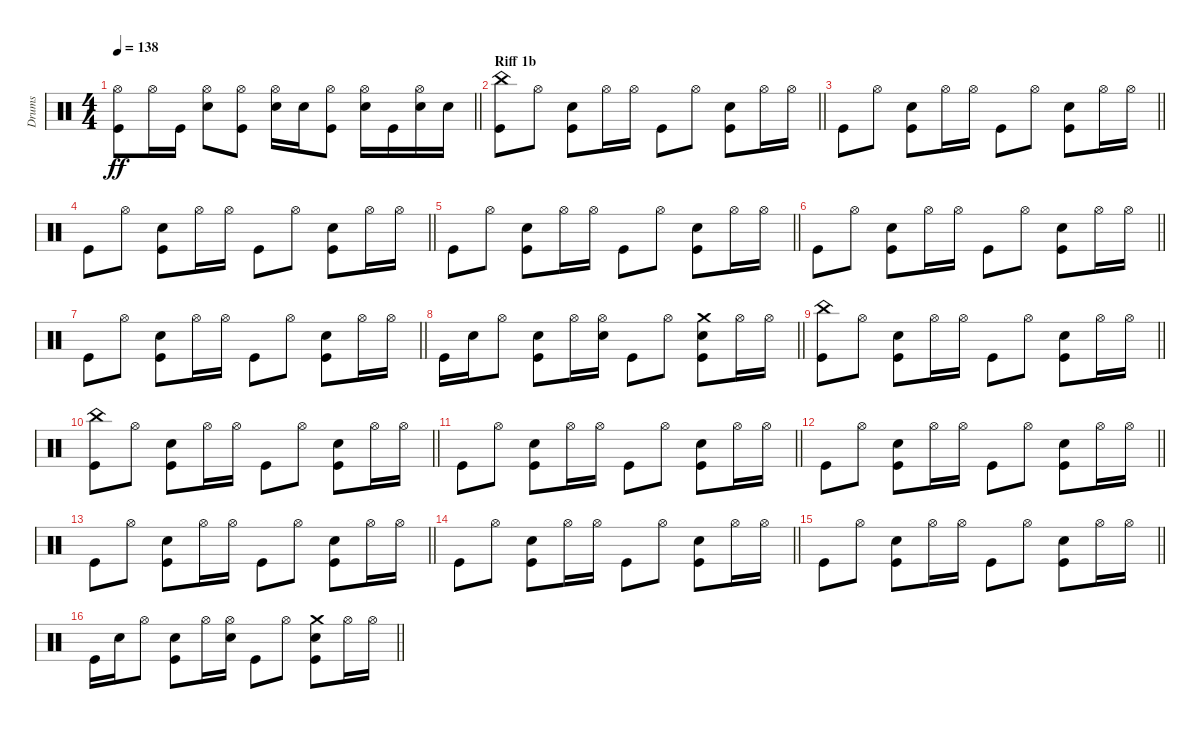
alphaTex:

\track ("Drums" "Drums") {instrument percussion}
\staff {score}
\articulation defaults
\ts (4 4)
\tempo 138
\clef neutral
\barLineRight lightlight
\ks c
("Kick (hit)" "Hi-Hat (open)").8{dy ff} "Hi-Hat (open)".16 "Kick (hit)".16 ("Snare (hit) 2" "Hi-Hat (open)").8 ("Kick (hit)" "Hi-Hat (open)").8 ("Snare (hit) 2" "Hi-Hat (open)").16 "Snare (hit) 2".16 ("Kick (hit)" "Hi-Hat (open)").8 ("Snare (hit) 2" "Hi-Hat (open)").16 "Kick (hit)".16 ("Snare (hit) 2" "Hi-Hat (open)").16 "Snare (hit) 2".16 |
\section ("" "Riff 1b")
\barLineRight lightlight
("Kick (hit)" "China (hit)").8 "Hi-Hat (open)".8 ("Kick (hit)" "Snare (hit) 2").8 "Hi-Hat (open)".16 "Hi-Hat (open)".16 "Kick (hit)".8 "Hi-Hat (open)".8 ("Kick (hit)" "Snare (hit) 2").8 "Hi-Hat (open)".16 "Hi-Hat (open)".16 |
\barLineRight lightlight "Kick (hit)".8 "Hi-Hat (open)".8
("Kick (hit)" "Snare (hit) 2").8 "Hi-Hat (open)".16 "Hi-Hat (open)".16 "Kick (hit)".8 "Hi-Hat (open)".8 ("Kick (hit)" "Snare (hit) 2").8 "Hi-Hat (open)".16 "Hi-Hat (open)".16 |
\barLineRight lightlight "Kick (hit)".8 "Hi-Hat (open)".8
("Kick (hit)" "Snare (hit) 2").8 "Hi-Hat (open)".16 "Hi-Hat (open)".16 "Kick (hit)".8 "Hi-Hat (open)".8 ("Kick (hit)" "Snare (hit) 2").8 "Hi-Hat (open)".16 "Hi-Hat (open)".16 |
\barLineRight lightlight "Kick (hit)".8 "Hi-Hat (open)".8
("Kick (hit)" "Snare (hit) 2").8 "Hi-Hat (open)".16 "Hi-Hat (open)".16 "Kick (hit)".8 "Hi-Hat (open)".8 ("Kick (hit)" "Snare (hit) 2").8 "Hi-Hat (open)".16 "Hi-Hat (open)".16 |
\barLineRight lightlight "Kick (hit)".8 "Hi-Hat (open)".8
("Kick (hit)" "Snare (hit) 2").8 "Hi-Hat (open)".16 "Hi-Hat (open)".16 "Kick (hit)".8 "Hi-Hat (open)".8 ("Kick (hit)" "Snare (hit) 2").8 "Hi-Hat (open)".16 "Hi-Hat (open)".16 |
\barLineRight lightlight "Kick (hit)".8 "Hi-Hat (open)".8
("Kick (hit)" "Snare (hit) 2").8 "Hi-Hat (open)".16 "Hi-Hat (open)".16 "Kick (hit)".8 "Hi-Hat (open)".8 ("Kick (hit)" "Snare (hit) 2").8 "Hi-Hat (open)".16 "Hi-Hat (open)".16 |
\barLineRight lightlight "Kick (hit)".16 "Snare (hit) 2".16 "Hi-Hat (open)".8
("Kick (hit)" "Snare (hit) 2").8 "Hi-Hat (open)".16 ("Snare (hit) 2" "Hi-Hat (open)").16 "Kick (hit)".8 "Hi-Hat (open)".8 ("Kick (hit)" "Snare (hit) 2" "Crash medium (hit)").8 "Hi-Hat (open)".16 "Hi-Hat (open)".16 |
\barLineRight lightlight
("Kick (hit)" "China (hit)").8 "Hi-Hat (open)".8 ("Kick (hit)" "Snare (hit) 2").8 "Hi-Hat (open)".16 "Hi-Hat (open)".16 "Kick (hit)".8 "Hi-Hat (open)".8 ("Kick (hit)" "Snare (hit) 2").8 "Hi-Hat (open)".16 "Hi-Hat (open)".16 |
\barLineRight lightlight
("Kick (hit)" "China (hit)").8 "Hi-Hat (open)".8 ("Kick (hit)" "Snare (hit) 2").8 "Hi-Hat (open)".16 "Hi-Hat (open)".16 "Kick (hit)".8 "Hi-Hat (open)".8 ("Kick (hit)" "Snare (hit) 2").8 "Hi-Hat (open)".16 "Hi-Hat (open)".16 |
\barLineRight lightlight "Kick (hit)".8 "Hi-Hat (open)".8
("Kick (hit)" "Snare (hit) 2").8 "Hi-Hat (open)".16 "Hi-Hat (open)".16 "Kick (hit)".8 "Hi-Hat (open)".8 ("Kick (hit)" "Snare (hit) 2").8 "Hi-Hat (open)".16 "Hi-Hat (open)".16 |
\barLineRight lightlight "Kick (hit)".8 "Hi-Hat (open)".8
("Kick (hit)" "Snare (hit) 2").8 "Hi-Hat (open)".16 "Hi-Hat (open)".16 "Kick (hit)".8 "Hi-Hat (open)".8 ("Kick (hit)" "Snare (hit) 2").8 "Hi-Hat (open)".16 "Hi-Hat (open)".16 |
\barLineRight lightlight "Kick (hit)".8 "Hi-Hat (open)".8
("Kick (hit)" "Snare (hit) 2").8 "Hi-Hat (open)".16 "Hi-Hat (open)".16 "Kick (hit)".8 "Hi-Hat (open)".8 ("Kick (hit)" "Snare (hit) 2").8 "Hi-Hat (open)".16 "Hi-Hat (open)".16 |
\barLineRight lightlight "Kick (hit)".8 "Hi-Hat (open)".8
("Kick (hit)" "Snare (hit) 2").8 "Hi-Hat (open)".16 "Hi-Hat (open)".16 "Kick (hit)".8 "Hi-Hat (open)".8 ("Kick (hit)" "Snare (hit) 2").8 "Hi-Hat (open)".16 "Hi-Hat (open)".16 |
\barLineRight lightlight "Kick (hit)".8 "Hi-Hat (open)".8
("Kick (hit)" "Snare (hit) 2").8 "Hi-Hat (open)".16 "Hi-Hat (open)".16 "Kick (hit)".8 "Hi-Hat (open)".8 ("Kick (hit)" "Snare (hit) 2").8 "Hi-Hat (open)".16 "Hi-Hat (open)".16 |
\barLineRight lightlight "Kick (hit)".16 "Snare (hit) 2".16 "Hi-Hat (open)".8
("Kick (hit)" "Snare (hit) 2").8 "Hi-Hat (open)".16 ("Snare (hit) 2" "Hi-Hat (open)").16 "Kick (hit)".8 "Hi-Hat (open)".8 ("Kick (hit)" "Snare (hit) 2" "Crash medium (hit)").8 "Hi-Hat (open)".16 "Hi-Hat (open)".16
